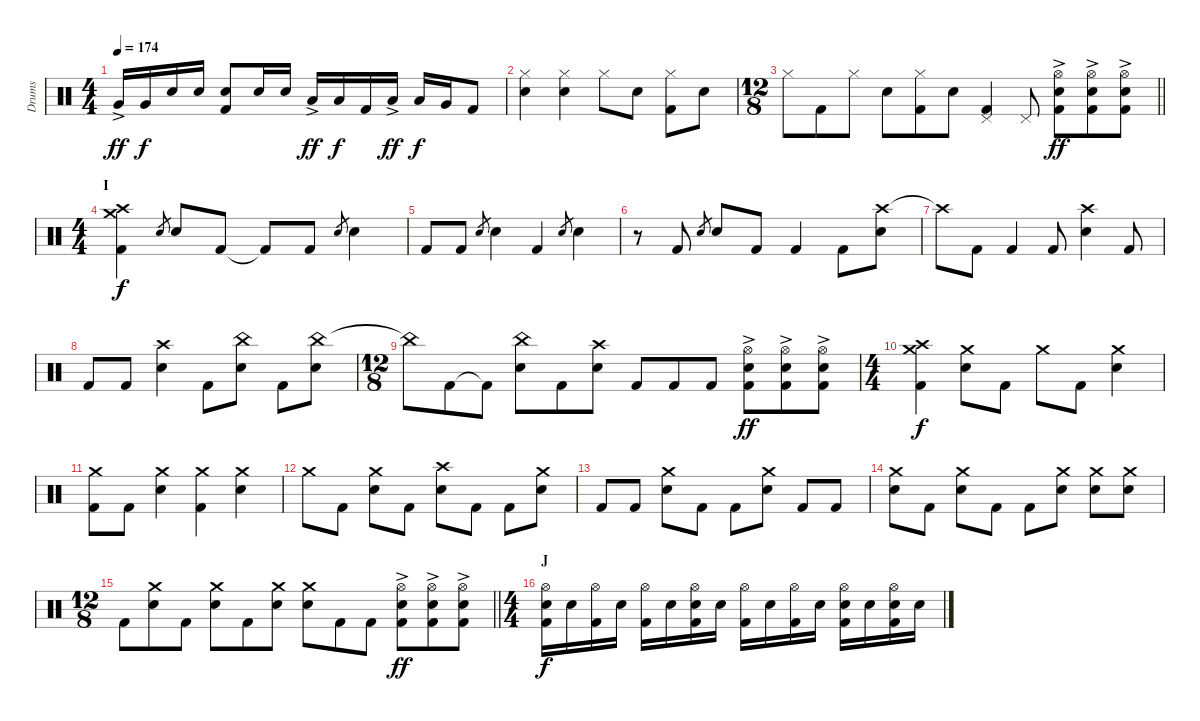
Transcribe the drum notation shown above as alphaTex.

\track ("Drums" "Drums") {instrument percussion}
\staff {score}
\articulation defaults
\ts (4 4)
\tempo 174
\clef neutral
\ks c "Very Low Tom (hit)"{ac}.16{dy ff} "Very Low Tom (hit)".16{dy f} "Electric Snare (hit)".16 "Electric Snare (hit)".16
("Electric Snare (hit)" "Kick (hit) 2").8 "Electric Snare (hit)".16 "Electric Snare (hit)".16 "Low Tom (hit)"{ac}.16{dy ff} "Low Tom (hit)".16{dy f} "Kick (hit) 2".16 "Low Tom (hit)"{ac}.16{dy ff} "Low Tom (hit)".16{dy f} "Very Low Tom (hit)".16 "Kick (hit) 2".8 |
("Hi-Hat (closed)" "Electric Snare (hit)").4 ("Hi-Hat (closed)" "Electric Snare (hit)").4 "Hi-Hat (closed)".8 "Electric Snare (hit)".8 ("Hi-Hat (closed)" "Kick (hit) 2").8 "Electric Snare (hit)".8 |
\ts (12 8)
\barLineRight lightlight "Hi-Hat (closed)".8 "Kick (hit) 2".8 "Hi-Hat (closed)".8 "Electric Snare (hit)".8
("Hi-Hat (closed)" "Kick (hit) 2").8 "Electric Snare (hit)".8 ("Pedal Hi-Hat (hit)" "Kick (hit) 2").4 "Pedal Hi-Hat (hit)".8 ("Hi-Hat (open)"{ac} "Electric Snare (hit)"{ac} "Kick (hit) 2"{ac}).8{dy ff} ("Hi-Hat (open)"{ac} "Electric Snare (hit)"{ac} "Kick (hit) 2"{ac}).8 ("Hi-Hat (open)"{ac} "Electric Snare (hit)"{ac} "Kick (hit) 2"{ac}).8 |
\ts (4 4)
\section ("" "I")
("Crash medium (hit)" "Crash high (hit)" "Kick (hit) 2").4{dy f volume 14} "Electric Snare (hit)".8{gr} "Electric Snare (hit)".8 "Kick (hit) 2".8 "Kick (hit) 2"{t}.8 "Kick (hit) 2".8 "Electric Snare (hit)".8{gr} "Electric Snare (hit)".4 |
"Kick (hit) 2".8 "Kick (hit) 2".8 "Electric Snare (hit)".8{gr} "Electric Snare (hit)".4 "Kick (hit) 2".4 "Electric Snare (hit)".8{gr} "Electric Snare (hit)".4 |
r.8 "Kick (hit) 2".8 "Electric Snare (hit)".8{gr} "Electric Snare (hit)".8 "Kick (hit) 2".8 "Kick (hit) 2".4 "Kick (hit) 2".8 ("Crash high (hit)" "Electric Snare (hit)").8 |
"Crash high (hit)"{t}.8 "Kick (hit) 2".8 "Kick (hit) 2".4 "Kick (hit) 2".8 ("Crash high (hit)" "Electric Snare (hit)").4 "Kick (hit) 2".8 |
"Kick (hit) 2".8 "Kick (hit) 2".8 ("Crash high (hit)" "Electric Snare (hit)").4 "Kick (hit) 2".8 ("China (hit)" "Electric Snare (hit)").8 "Kick (hit) 2".8 ("China (hit)" "Electric Snare (hit)").8 |
\ts (12 8)
"China (hit)"{t}.8 "Kick (hit) 2".8 "Kick (hit) 2"{t}.8 ("China (hit)" "Electric Snare (hit)").8 "Kick (hit) 2".8 ("Crash high (hit)" "Electric Snare (hit)").8 "Kick (hit) 2".8 "Kick (hit) 2".8 "Kick (hit) 2".8 ("Hi-Hat (open)"{ac} "Electric Snare (hit)"{ac} "Kick (hit) 2"{ac}).8{dy ff} ("Hi-Hat (open)"{ac} "Electric Snare (hit)"{ac} "Kick (hit) 2"{ac}).8 ("Hi-Hat (open)"{ac} "Electric Snare (hit)"{ac} "Kick (hit) 2"{ac}).8 |
\ts (4 4)
("Crash medium (hit)" "Crash high (hit)" "Kick (hit) 2").4{dy f} ("Crash medium (hit)" "Electric Snare (hit)").8 "Kick (hit) 2".8 "Crash medium (hit)".8 "Kick (hit) 2".8 ("Crash medium (hit)" "Electric Snare (hit)").4 |
("Crash medium (hit)" "Kick (hit) 2").8 "Kick (hit) 2".8 ("Crash medium (hit)" "Electric Snare (hit)").4 ("Crash medium (hit)" "Kick (hit) 2").4 ("Crash medium (hit)" "Electric Snare (hit)").4 |
"Crash medium (hit)".8 "Kick (hit) 2".8 ("Crash medium (hit)" "Electric Snare (hit)").8 "Kick (hit) 2".8 ("Crash high (hit)" "Electric Snare (hit)").8 "Kick (hit) 2".8 "Kick (hit) 2".8 ("Crash medium (hit)" "Electric Snare (hit)").8 |
"Kick (hit) 2".8 "Kick (hit) 2".8 ("Crash medium (hit)" "Electric Snare (hit)").8 "Kick (hit) 2".8 "Kick (hit) 2".8 ("Crash medium (hit)" "Electric Snare (hit)").8 "Kick (hit) 2".8 "Kick (hit) 2".8 |
("Crash medium (hit)" "Electric Snare (hit)").8 "Kick (hit) 2".8 ("Crash medium (hit)" "Electric Snare (hit)").8 "Kick (hit) 2".8 "Kick (hit) 2".8 ("Crash medium (hit)" "Electric Snare (hit)").8 ("Crash medium (hit)" "Electric Snare (hit)").8 ("Crash medium (hit)" "Electric Snare (hit)").8 |
\ts (12 8)
\barLineRight lightlight "Kick (hit) 2".8
("Crash medium (hit)" "Electric Snare (hit)").8 "Kick (hit) 2".8 ("Crash medium (hit)" "Electric Snare (hit)").8 "Kick (hit) 2".8 ("Crash medium (hit)" "Electric Snare (hit)").8 ("Crash medium (hit)" "Electric Snare (hit)").8 "Kick (hit) 2".8 "Kick (hit) 2".8 ("Hi-Hat (open)"{ac} "Electric Snare (hit)"{ac} "Kick (hit) 2"{ac}).8{dy ff} ("Hi-Hat (open)"{ac} "Electric Snare (hit)"{ac} "Kick (hit) 2"{ac}).8 ("Hi-Hat (open)"{ac} "Electric Snare (hit)"{ac} "Kick (hit) 2"{ac}).8 |
\ts (4 4)
\section ("" "J")
("Hi-Hat (open)" "Electric Snare (hit)" "Kick (hit) 2").16{dy f} "Electric Snare (hit)".16 ("Hi-Hat (open)" "Kick (hit) 2").16 "Electric Snare (hit)".16 ("Hi-Hat (open)" "Kick (hit) 2").16 "Electric Snare (hit)".16 ("Hi-Hat (open)" "Electric Snare (hit)" "Kick (hit) 2").16 "Electric Snare (hit)".16 ("Hi-Hat (open)" "Kick (hit) 2").16 "Electric Snare (hit)".16 ("Hi-Hat (open)" "Kick (hit) 2").16 "Electric Snare (hit)".16 ("Hi-Hat (open)" "Electric Snare (hit)" "Kick (hit) 2").16 "Electric Snare (hit)".16 ("Hi-Hat (open)" "Electric Snare (hit)" "Kick (hit) 2").16 "Electric Snare (hit)".16
